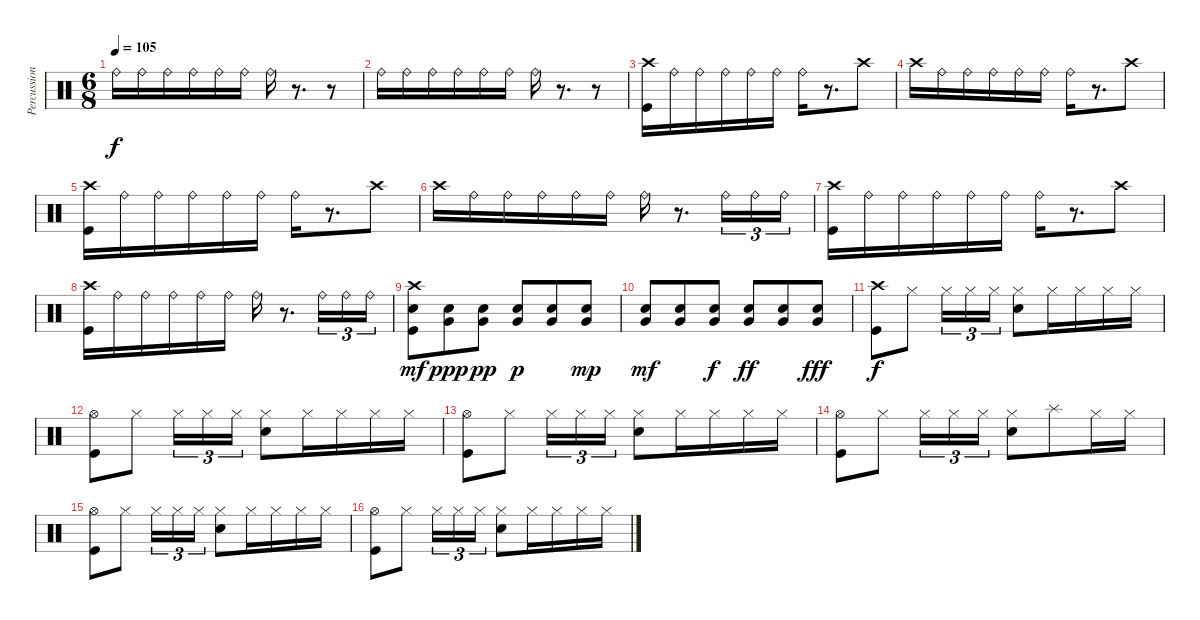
\track ("Percussion" "Percussion") {instrument percussion}
\staff {score}
\articulation defaults
\ts (6 8)
\tempo 105
\clef neutral
\ks c "Ride (bell)".16{dy f} "Ride (bell)".16 "Ride (bell)".16 "Ride (bell)".16 "Ride (bell)".16 "Ride (bell)".16 "Ride (bell)".16
r.8{d} r.8 |
"Ride (bell)".16 "Ride (bell)".16 "Ride (bell)".16 "Ride (bell)".16 "Ride (bell)".16 "Ride (bell)".16 "Ride (bell)".16 r.8{d} r.8 |
("Crash high (hit)" "Kick (hit)").16 "Ride (bell)".16 "Ride (bell)".16 "Ride (bell)".16 "Ride (bell)".16 "Ride (bell)".16 "Ride (bell)".16 r.8{d} "Crash high (hit)".8 |
"Crash high (hit)".16 "Ride (bell)".16 "Ride (bell)".16 "Ride (bell)".16 "Ride (bell)".16 "Ride (bell)".16 "Ride (bell)".16 r.8{d} "Crash high (hit)".8 |
("Crash high (hit)" "Kick (hit)").16 "Ride (bell)".16 "Ride (bell)".16 "Ride (bell)".16 "Ride (bell)".16 "Ride (bell)".16 "Ride (bell)".16 r.8{d} "Crash high (hit)".8 |
"Crash high (hit)".16 "Ride (bell)".16 "Ride (bell)".16 "Ride (bell)".16 "Ride (bell)".16 "Ride (bell)".16 "Ride (bell)".16 r.8{d} "Ride (bell)".16{tu (3 2)} "Ride (bell)".16{tu (3 2)} "Ride (bell)".16{tu (3 2)} |
("Crash high (hit)" "Kick (hit)").16 "Ride (bell)".16 "Ride (bell)".16 "Ride (bell)".16 "Ride (bell)".16 "Ride (bell)".16 "Ride (bell)".16 r.8{d} "Crash high (hit)".8 |
("Crash high (hit)" "Kick (hit)").16 "Ride (bell)".16 "Ride (bell)".16 "Ride (bell)".16 "Ride (bell)".16 "Ride (bell)".16 "Ride (bell)".16 r.8{d} "Ride (bell)".16{tu (3 2)} "Ride (bell)".16{tu (3 2)} "Ride (bell)".16{tu (3 2)} |
("Crash high (hit)" "Electric Snare (hit)" "Kick (hit)").8{dy mf} ("Very Low Tom (hit)" "Electric Snare (hit)").8{dy ppp} ("Very Low Tom (hit)" "Electric Snare (hit)").8{dy pp} ("Very Low Tom (hit)" "Electric Snare (hit)").8{dy p} ("Very Low Tom (hit)" "Electric Snare (hit)").8 ("Very Low Tom (hit)" "Electric Snare (hit)").8{dy mp} |
("Very Low Tom (hit)" "Electric Snare (hit)").8{dy mf} ("Very Low Tom (hit)" "Electric Snare (hit)").8 ("Very Low Tom (hit)" "Electric Snare (hit)").8{dy f} ("Very Low Tom (hit)" "Electric Snare (hit)").8{dy ff} ("Very Low Tom (hit)" "Electric Snare (hit)").8 ("Very Low Tom (hit)" "Electric Snare (hit)").8{dy fff} |
("Crash high (hit)" "Kick (hit)").8{dy f} "Hi-Hat (closed)".8 "Hi-Hat (closed)".16{tu (3 2)} "Hi-Hat (closed)".16{tu (3 2)} "Hi-Hat (closed)".16{tu (3 2)} ("Hi-Hat (closed)" "Electric Snare (hit)").8 "Hi-Hat (closed)".16 "Hi-Hat (closed)".16 "Hi-Hat (closed)".16 "Hi-Hat (closed)".16 |
("Hi-Hat (open)" "Kick (hit)").8 "Hi-Hat (closed)".8 "Hi-Hat (closed)".16{tu (3 2)} "Hi-Hat (closed)".16{tu (3 2)} "Hi-Hat (closed)".16{tu (3 2)} ("Hi-Hat (closed)" "Electric Snare (hit)").8 "Hi-Hat (closed)".16 "Hi-Hat (closed)".16 "Hi-Hat (closed)".16 "Hi-Hat (closed)".16 |
("Hi-Hat (open)" "Kick (hit)").8 "Hi-Hat (closed)".8 "Hi-Hat (closed)".16{tu (3 2)} "Hi-Hat (closed)".16{tu (3 2)} "Hi-Hat (closed)".16{tu (3 2)} ("Hi-Hat (closed)" "Electric Snare (hit)").8 "Hi-Hat (closed)".16 "Hi-Hat (closed)".16 "Hi-Hat (closed)".16 "Hi-Hat (closed)".16 |
("Hi-Hat (open)" "Kick (hit)").8 "Hi-Hat (closed)".8 "Hi-Hat (closed)".16{tu (3 2)} "Hi-Hat (closed)".16{tu (3 2)} "Hi-Hat (closed)".16{tu (3 2)} ("Hi-Hat (closed)" "Electric Snare (hit)").8 "Splash (hit)".8 "Hi-Hat (closed)".16 "Hi-Hat (closed)".16 |
("Hi-Hat (open)" "Kick (hit)").8 "Hi-Hat (closed)".8 "Hi-Hat (closed)".16{tu (3 2)} "Hi-Hat (closed)".16{tu (3 2)} "Hi-Hat (closed)".16{tu (3 2)} ("Hi-Hat (closed)" "Electric Snare (hit)").8 "Hi-Hat (closed)".16 "Hi-Hat (closed)".16 "Hi-Hat (closed)".16 "Hi-Hat (closed)".16 |
("Hi-Hat (open)" "Kick (hit)").8 "Hi-Hat (closed)".8 "Hi-Hat (closed)".16{tu (3 2)} "Hi-Hat (closed)".16{tu (3 2)} "Hi-Hat (closed)".16{tu (3 2)} ("Hi-Hat (closed)" "Electric Snare (hit)").8 "Hi-Hat (closed)".16 "Hi-Hat (closed)".16 "Hi-Hat (closed)".16 "Hi-Hat (closed)".16
